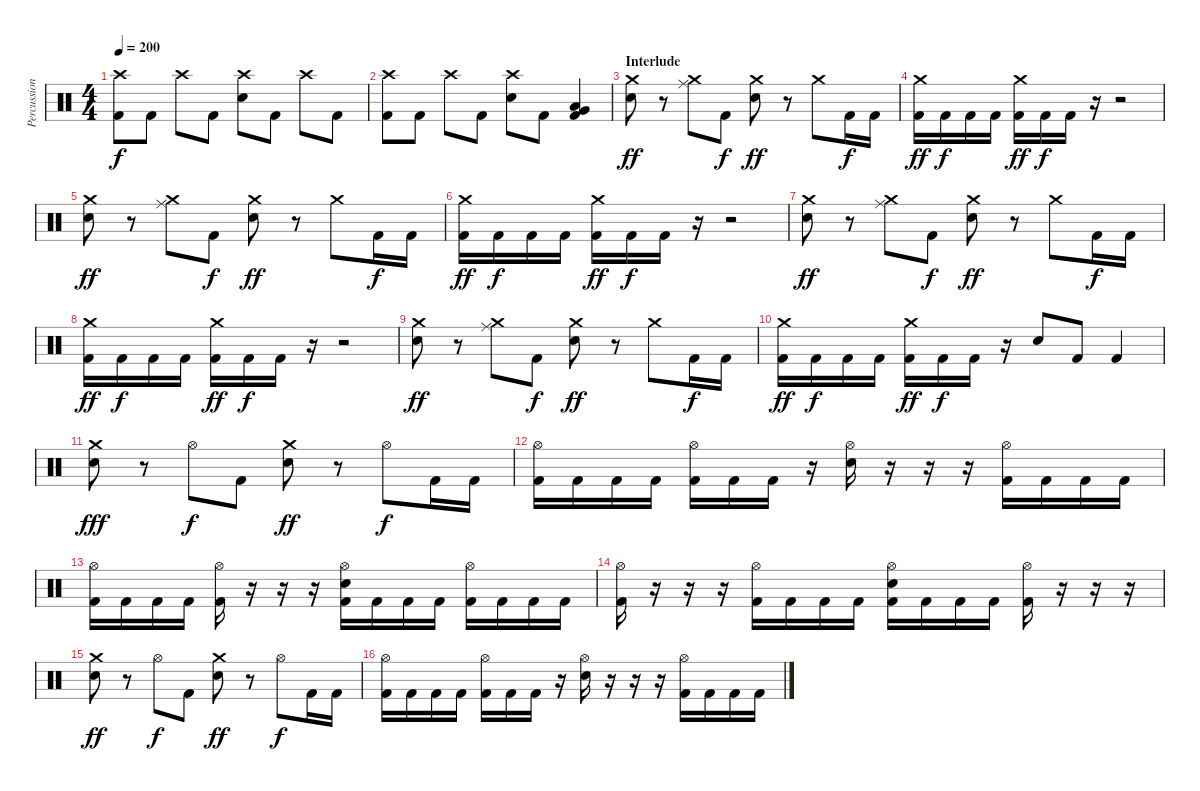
\track ("Percussions" "Percussion") {instrument percussion}
\staff {score}
\articulation defaults
\ts (4 4)
\tempo 200
\clef neutral
\ks c
("Crash high (hit)" "Kick (hit) 2").8{dy f} "Kick (hit) 2".8 "Crash high (hit)".8 "Kick (hit) 2".8 ("Crash high (hit)" "Electric Snare (hit)").8 "Kick (hit) 2".8 "Crash high (hit)".8 "Kick (hit) 2".8 |
("Crash high (hit)" "Kick (hit) 2").8 "Kick (hit) 2".8 "Crash high (hit)".8 "Kick (hit) 2".8 ("Crash high (hit)" "Electric Snare (hit)").8 "Kick (hit) 2".8 ("Very Low Tom (hit)" "Low Floor Tom (hit)" "Kick (hit) 2").4 |
\section ("" "Interlude")
("Crash medium (hit)" "Electric Snare (hit)").8{dy ff} r.8 ("Ride (middle)" "Crash medium (hit)").8 "Kick (hit) 2".8{dy f} ("Crash medium (hit)" "Electric Snare (hit)").8{dy ff} r.8 "Crash medium (hit)".8 "Kick (hit) 2".16{dy f} "Kick (hit) 2".16 |
("Crash medium (hit)" "Kick (hit) 2").16{dy ff} "Kick (hit) 2".16{dy f} "Kick (hit) 2".16 "Kick (hit) 2".16 ("Crash medium (hit)" "Kick (hit) 2").16{dy ff} "Kick (hit) 2".16{dy f} "Kick (hit) 2".16 r.16 r.2 |
("Crash medium (hit)" "Electric Snare (hit)").8{dy ff} r.8 ("Ride (middle)" "Crash medium (hit)").8 "Kick (hit) 2".8{dy f} ("Crash medium (hit)" "Electric Snare (hit)").8{dy ff} r.8 "Crash medium (hit)".8 "Kick (hit) 2".16{dy f} "Kick (hit) 2".16 |
("Crash medium (hit)" "Kick (hit) 2").16{dy ff} "Kick (hit) 2".16{dy f} "Kick (hit) 2".16 "Kick (hit) 2".16 ("Crash medium (hit)" "Kick (hit) 2").16{dy ff} "Kick (hit) 2".16{dy f} "Kick (hit) 2".16 r.16 r.2 |
("Crash medium (hit)" "Electric Snare (hit)").8{dy ff} r.8 ("Ride (middle)" "Crash medium (hit)").8 "Kick (hit) 2".8{dy f} ("Crash medium (hit)" "Electric Snare (hit)").8{dy ff} r.8 "Crash medium (hit)".8 "Kick (hit) 2".16{dy f} "Kick (hit) 2".16 |
("Crash medium (hit)" "Kick (hit) 2").16{dy ff} "Kick (hit) 2".16{dy f} "Kick (hit) 2".16 "Kick (hit) 2".16 ("Crash medium (hit)" "Kick (hit) 2").16{dy ff} "Kick (hit) 2".16{dy f} "Kick (hit) 2".16 r.16 r.2 |
("Crash medium (hit)" "Electric Snare (hit)").8{dy ff} r.8 ("Ride (middle)" "Crash medium (hit)").8 "Kick (hit) 2".8{dy f} ("Crash medium (hit)" "Electric Snare (hit)").8{dy ff} r.8 "Crash medium (hit)".8 "Kick (hit) 2".16{dy f} "Kick (hit) 2".16 |
("Crash medium (hit)" "Kick (hit) 2").16{dy ff} "Kick (hit) 2".16{dy f} "Kick (hit) 2".16 "Kick (hit) 2".16 ("Crash medium (hit)" "Kick (hit) 2").16{dy ff} "Kick (hit) 2".16{dy f} "Kick (hit) 2".16 r.16 "Electric Snare (hit)".8 "Kick (hit) 2".8 "Kick (hit) 2".4 |
\section ("" "")
("Crash medium (hit)" "Electric Snare (hit)").8{dy fff} r.8 "Hi-Hat (open)".8{dy f} "Kick (hit) 2".8 ("Crash medium (hit)" "Electric Snare (hit)").8{dy ff} r.8 "Hi-Hat (open)".8{dy f} "Kick (hit) 2".16 "Kick (hit) 2".16 |
("Hi-Hat (open)" "Kick (hit) 2").16 "Kick (hit) 2".16 "Kick (hit) 2".16 "Kick (hit) 2".16 ("Hi-Hat (open)" "Kick (hit) 2").16 "Kick (hit) 2".16 "Kick (hit) 2".16 r.16 ("Hi-Hat (open)" "Electric Snare (hit)").16 r.16 r.16 r.16 ("Hi-Hat (open)" "Kick (hit) 2").16 "Kick (hit) 2".16 "Kick (hit) 2".16 "Kick (hit) 2".16 |
("Hi-Hat (open)" "Kick (hit) 2").16 "Kick (hit) 2".16 "Kick (hit) 2".16 "Kick (hit) 2".16 ("Hi-Hat (open)" "Kick (hit) 2").16 r.16 r.16 r.16 ("Hi-Hat (open)" "Electric Snare (hit)" "Kick (hit) 2").16 "Kick (hit) 2".16 "Kick (hit) 2".16 "Kick (hit) 2".16 ("Hi-Hat (open)" "Kick (hit) 2").16 "Kick (hit) 2".16 "Kick (hit) 2".16 "Kick (hit) 2".16 |
("Hi-Hat (open)" "Kick (hit) 2").16 r.16 r.16 r.16 ("Hi-Hat (open)" "Kick (hit) 2").16 "Kick (hit) 2".16 "Kick (hit) 2".16 "Kick (hit) 2".16 ("Hi-Hat (open)" "Electric Snare (hit)" "Kick (hit) 2").16 "Kick (hit) 2".16 "Kick (hit) 2".16 "Kick (hit) 2".16 ("Hi-Hat (open)" "Kick (hit) 2").16 r.16 r.16 r.16 |
("Crash medium (hit)" "Electric Snare (hit)").8{dy ff} r.8 "Hi-Hat (open)".8{dy f} "Kick (hit) 2".8 ("Crash medium (hit)" "Electric Snare (hit)").8{dy ff} r.8 "Hi-Hat (open)".8{dy f} "Kick (hit) 2".16 "Kick (hit) 2".16 |
("Hi-Hat (open)" "Kick (hit) 2").16 "Kick (hit) 2".16 "Kick (hit) 2".16 "Kick (hit) 2".16 ("Hi-Hat (open)" "Kick (hit) 2").16 "Kick (hit) 2".16 "Kick (hit) 2".16 r.16 ("Hi-Hat (open)" "Electric Snare (hit)").16 r.16 r.16 r.16 ("Hi-Hat (open)" "Kick (hit) 2").16 "Kick (hit) 2".16 "Kick (hit) 2".16 "Kick (hit) 2".16
